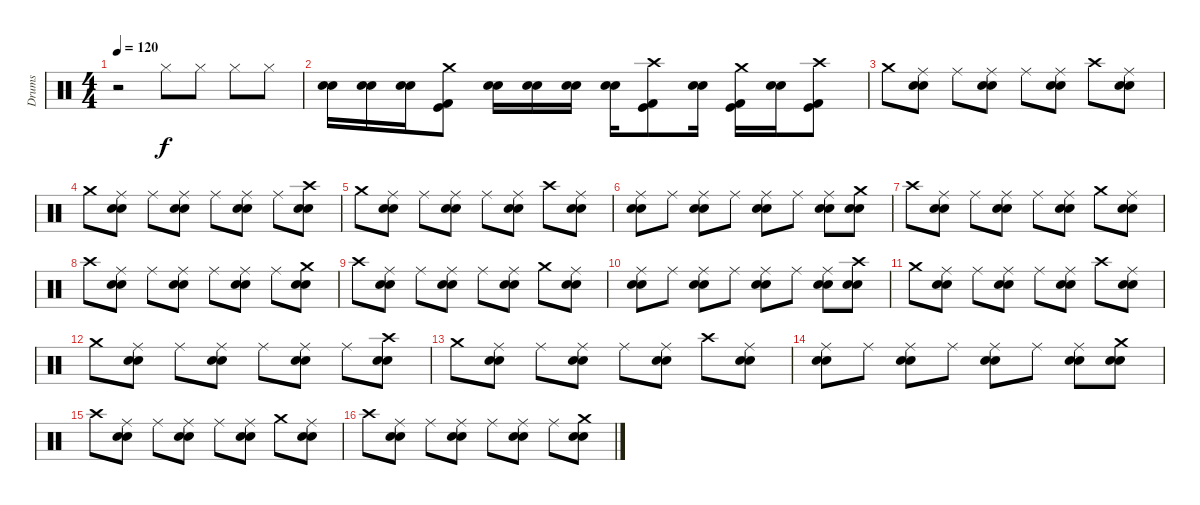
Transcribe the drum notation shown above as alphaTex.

\track ("Drums" "Drums") {instrument percussion}
\staff {score}
\articulation defaults
\ts (4 4)
\tempo 120
\clef neutral
\ks c
r.2{dy f} "Hi-Hat (closed)".8 "Hi-Hat (closed)".8 "Hi-Hat (closed)".8 "Hi-Hat (closed)".8 |
("Electric Snare (hit)" "Snare (hit) 2").16 ("Electric Snare (hit)" "Snare (hit) 2").16 ("Electric Snare (hit)" "Snare (hit) 2").16 ("Kick (hit) 2" "Kick (hit)" "Crash medium (hit)").8 ("Electric Snare (hit)" "Snare (hit) 2").16 ("Electric Snare (hit)" "Snare (hit) 2").16 ("Electric Snare (hit)" "Snare (hit) 2").16 ("Electric Snare (hit)" "Snare (hit) 2").16 ("Kick (hit) 2" "Kick (hit)" "Crash high (hit)").8 ("Electric Snare (hit)" "Snare (hit) 2").16 ("Kick (hit) 2" "Kick (hit)" "Crash medium (hit)").16 ("Electric Snare (hit)" "Snare (hit) 2").16 ("Kick (hit) 2" "Kick (hit)" "Crash high (hit)").8 |
"Crash medium (hit)".8 ("Ride (middle)" "Electric Snare (hit)" "Snare (hit) 2").8 "Ride (middle)".8 ("Ride (middle)" "Electric Snare (hit)" "Snare (hit) 2").8 "Ride (middle)".8 ("Ride (middle)" "Electric Snare (hit)" "Snare (hit) 2").8 "Crash high (hit)".8 ("Ride (middle)" "Electric Snare (hit)" "Snare (hit) 2").8 |
"Crash medium (hit)".8 ("Ride (middle)" "Electric Snare (hit)" "Snare (hit) 2").8 "Ride (middle)".8 ("Ride (middle)" "Electric Snare (hit)" "Snare (hit) 2").8 "Ride (middle)".8 ("Ride (middle)" "Electric Snare (hit)" "Snare (hit) 2").8 "Ride (middle)".8 ("Crash high (hit)" "Electric Snare (hit)" "Snare (hit) 2").8 |
"Crash medium (hit)".8 ("Ride (middle)" "Electric Snare (hit)" "Snare (hit) 2").8 "Ride (middle)".8 ("Ride (middle)" "Electric Snare (hit)" "Snare (hit) 2").8 "Ride (middle)".8 ("Ride (middle)" "Electric Snare (hit)" "Snare (hit) 2").8 "Crash high (hit)".8 ("Ride (middle)" "Electric Snare (hit)" "Snare (hit) 2").8 |
("Ride (middle)" "Electric Snare (hit)" "Snare (hit) 2").8 "Ride (middle)".8 ("Ride (middle)" "Electric Snare (hit)" "Snare (hit) 2").8 "Ride (middle)".8 ("Ride (middle)" "Electric Snare (hit)" "Snare (hit) 2").8 "Ride (middle)".8 ("Ride (middle)" "Electric Snare (hit)" "Snare (hit) 2").8 ("Crash medium (hit)" "Electric Snare (hit)" "Snare (hit) 2").8 |
"Crash high (hit)".8 ("Ride (middle)" "Electric Snare (hit)" "Snare (hit) 2").8 "Ride (middle)".8 ("Ride (middle)" "Electric Snare (hit)" "Snare (hit) 2").8 "Ride (middle)".8 ("Ride (middle)" "Electric Snare (hit)" "Snare (hit) 2").8 "Crash medium (hit)".8 ("Ride (middle)" "Electric Snare (hit)" "Snare (hit) 2").8 |
"Crash high (hit)".8 ("Ride (middle)" "Electric Snare (hit)" "Snare (hit) 2").8 "Ride (middle)".8 ("Ride (middle)" "Electric Snare (hit)" "Snare (hit) 2").8 "Ride (middle)".8 ("Ride (middle)" "Electric Snare (hit)" "Snare (hit) 2").8 "Ride (middle)".8 ("Crash medium (hit)" "Electric Snare (hit)" "Snare (hit) 2").8 |
"Crash high (hit)".8 ("Ride (middle)" "Electric Snare (hit)" "Snare (hit) 2").8 "Ride (middle)".8 ("Ride (middle)" "Electric Snare (hit)" "Snare (hit) 2").8 "Ride (middle)".8 ("Ride (middle)" "Electric Snare (hit)" "Snare (hit) 2").8 "Crash medium (hit)".8 ("Ride (middle)" "Electric Snare (hit)" "Snare (hit) 2").8 |
("Ride (middle)" "Electric Snare (hit)" "Snare (hit) 2").8 "Ride (middle)".8 ("Ride (middle)" "Electric Snare (hit)" "Snare (hit) 2").8 "Ride (middle)".8 ("Ride (middle)" "Electric Snare (hit)" "Snare (hit) 2").8 "Ride (middle)".8 ("Ride (middle)" "Electric Snare (hit)" "Snare (hit) 2").8 ("Crash high (hit)" "Electric Snare (hit)" "Snare (hit) 2").8 |
"Crash medium (hit)".8 ("Ride (middle)" "Electric Snare (hit)" "Snare (hit) 2").8 "Ride (middle)".8 ("Ride (middle)" "Electric Snare (hit)" "Snare (hit) 2").8 "Ride (middle)".8 ("Ride (middle)" "Electric Snare (hit)" "Snare (hit) 2").8 "Crash high (hit)".8 ("Ride (middle)" "Electric Snare (hit)" "Snare (hit) 2").8 |
"Crash medium (hit)".8 ("Ride (middle)" "Electric Snare (hit)" "Snare (hit) 2").8 "Ride (middle)".8 ("Ride (middle)" "Electric Snare (hit)" "Snare (hit) 2").8 "Ride (middle)".8 ("Ride (middle)" "Electric Snare (hit)" "Snare (hit) 2").8 "Ride (middle)".8 ("Crash high (hit)" "Electric Snare (hit)" "Snare (hit) 2").8 |
"Crash medium (hit)".8 ("Ride (middle)" "Electric Snare (hit)" "Snare (hit) 2").8 "Ride (middle)".8 ("Ride (middle)" "Electric Snare (hit)" "Snare (hit) 2").8 "Ride (middle)".8 ("Ride (middle)" "Electric Snare (hit)" "Snare (hit) 2").8 "Crash high (hit)".8 ("Ride (middle)" "Electric Snare (hit)" "Snare (hit) 2").8 |
("Ride (middle)" "Electric Snare (hit)" "Snare (hit) 2").8 "Ride (middle)".8 ("Ride (middle)" "Electric Snare (hit)" "Snare (hit) 2").8 "Ride (middle)".8 ("Ride (middle)" "Electric Snare (hit)" "Snare (hit) 2").8 "Ride (middle)".8 ("Ride (middle)" "Electric Snare (hit)" "Snare (hit) 2").8 ("Crash medium (hit)" "Electric Snare (hit)" "Snare (hit) 2").8 |
"Crash high (hit)".8 ("Ride (middle)" "Electric Snare (hit)" "Snare (hit) 2").8 "Ride (middle)".8 ("Ride (middle)" "Electric Snare (hit)" "Snare (hit) 2").8 "Ride (middle)".8 ("Ride (middle)" "Electric Snare (hit)" "Snare (hit) 2").8 "Crash medium (hit)".8 ("Ride (middle)" "Electric Snare (hit)" "Snare (hit) 2").8 |
"Crash high (hit)".8 ("Ride (middle)" "Electric Snare (hit)" "Snare (hit) 2").8 "Ride (middle)".8 ("Ride (middle)" "Electric Snare (hit)" "Snare (hit) 2").8 "Ride (middle)".8 ("Ride (middle)" "Electric Snare (hit)" "Snare (hit) 2").8 "Ride (middle)".8 ("Crash medium (hit)" "Electric Snare (hit)" "Snare (hit) 2").8
